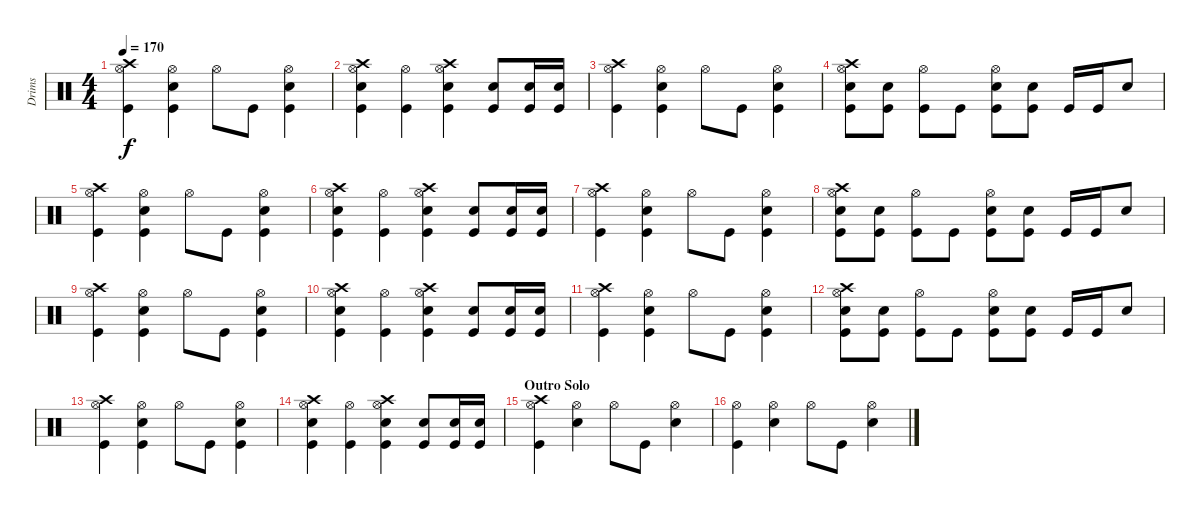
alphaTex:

\track ("Drims" "Drims") {instrument percussion}
\staff {score}
\articulation defaults
\ts (4 4)
\tempo 170
\clef neutral
\ks c
("Hi-Hat (open)" "Crash high (hit)" "Kick (hit)").4{dy f} ("Hi-Hat (open)" "Electric Snare (hit)" "Kick (hit)").4 "Hi-Hat (open)".8 "Kick (hit)".8 ("Hi-Hat (open)" "Electric Snare (hit)" "Kick (hit)").4 |
("Hi-Hat (open)" "Crash high (hit)" "Electric Snare (hit)" "Kick (hit)").4 ("Hi-Hat (open)" "Kick (hit)").4 ("Hi-Hat (open)" "Crash high (hit)" "Electric Snare (hit)" "Kick (hit)").4 ("Electric Snare (hit)" "Kick (hit)").8 ("Electric Snare (hit)" "Kick (hit)").16 ("Electric Snare (hit)" "Kick (hit)").16 |
("Hi-Hat (open)" "Crash high (hit)" "Kick (hit)").4 ("Hi-Hat (open)" "Electric Snare (hit)" "Kick (hit)").4 "Hi-Hat (open)".8 "Kick (hit)".8 ("Hi-Hat (open)" "Electric Snare (hit)" "Kick (hit)").4 |
("Hi-Hat (open)" "Crash high (hit)" "Electric Snare (hit)" "Kick (hit)").8 ("Electric Snare (hit)" "Kick (hit)").8 ("Hi-Hat (open)" "Kick (hit)").8 "Kick (hit)".8 ("Hi-Hat (open)" "Electric Snare (hit)" "Kick (hit)").8 ("Electric Snare (hit)" "Kick (hit)").8 "Kick (hit)".16 "Kick (hit)".16 "Electric Snare (hit)".8 |
("Hi-Hat (open)" "Crash high (hit)" "Kick (hit)").4 ("Hi-Hat (open)" "Electric Snare (hit)" "Kick (hit)").4 "Hi-Hat (open)".8 "Kick (hit)".8 ("Hi-Hat (open)" "Electric Snare (hit)" "Kick (hit)").4 |
("Hi-Hat (open)" "Crash high (hit)" "Electric Snare (hit)" "Kick (hit)").4 ("Hi-Hat (open)" "Kick (hit)").4 ("Hi-Hat (open)" "Crash high (hit)" "Electric Snare (hit)" "Kick (hit)").4 ("Electric Snare (hit)" "Kick (hit)").8 ("Electric Snare (hit)" "Kick (hit)").16 ("Electric Snare (hit)" "Kick (hit)").16 |
("Hi-Hat (open)" "Crash high (hit)" "Kick (hit)").4 ("Hi-Hat (open)" "Electric Snare (hit)" "Kick (hit)").4 "Hi-Hat (open)".8 "Kick (hit)".8 ("Hi-Hat (open)" "Electric Snare (hit)" "Kick (hit)").4 |
("Hi-Hat (open)" "Crash high (hit)" "Electric Snare (hit)" "Kick (hit)").8 ("Electric Snare (hit)" "Kick (hit)").8 ("Hi-Hat (open)" "Kick (hit)").8 "Kick (hit)".8 ("Hi-Hat (open)" "Electric Snare (hit)" "Kick (hit)").8 ("Electric Snare (hit)" "Kick (hit)").8 "Kick (hit)".16 "Kick (hit)".16 "Electric Snare (hit)".8 |
("Hi-Hat (open)" "Crash high (hit)" "Kick (hit)").4 ("Hi-Hat (open)" "Electric Snare (hit)" "Kick (hit)").4 "Hi-Hat (open)".8 "Kick (hit)".8 ("Hi-Hat (open)" "Electric Snare (hit)" "Kick (hit)").4 |
("Hi-Hat (open)" "Crash high (hit)" "Electric Snare (hit)" "Kick (hit)").4 ("Hi-Hat (open)" "Kick (hit)").4 ("Hi-Hat (open)" "Crash high (hit)" "Electric Snare (hit)" "Kick (hit)").4 ("Electric Snare (hit)" "Kick (hit)").8 ("Electric Snare (hit)" "Kick (hit)").16 ("Electric Snare (hit)" "Kick (hit)").16 |
("Hi-Hat (open)" "Crash high (hit)" "Kick (hit)").4 ("Hi-Hat (open)" "Electric Snare (hit)" "Kick (hit)").4 "Hi-Hat (open)".8 "Kick (hit)".8 ("Hi-Hat (open)" "Electric Snare (hit)" "Kick (hit)").4 |
("Hi-Hat (open)" "Crash high (hit)" "Electric Snare (hit)" "Kick (hit)").8 ("Electric Snare (hit)" "Kick (hit)").8 ("Hi-Hat (open)" "Kick (hit)").8 "Kick (hit)".8 ("Hi-Hat (open)" "Electric Snare (hit)" "Kick (hit)").8 ("Electric Snare (hit)" "Kick (hit)").8 "Kick (hit)".16 "Kick (hit)".16 "Electric Snare (hit)".8 |
("Hi-Hat (open)" "Crash high (hit)" "Kick (hit)").4 ("Hi-Hat (open)" "Electric Snare (hit)" "Kick (hit)").4 "Hi-Hat (open)".8 "Kick (hit)".8 ("Hi-Hat (open)" "Electric Snare (hit)" "Kick (hit)").4 |
("Hi-Hat (open)" "Crash high (hit)" "Electric Snare (hit)" "Kick (hit)").4 ("Hi-Hat (open)" "Kick (hit)").4 ("Hi-Hat (open)" "Crash high (hit)" "Electric Snare (hit)" "Kick (hit)").4 ("Electric Snare (hit)" "Kick (hit)").8 ("Electric Snare (hit)" "Kick (hit)").16 ("Electric Snare (hit)" "Kick (hit)").16 |
\section ("" "Outro Solo")
("Hi-Hat (open)" "Crash high (hit)" "Kick (hit)").4 ("Hi-Hat (open)" "Electric Snare (hit)").4 "Hi-Hat (open)".8 "Kick (hit)".8 ("Hi-Hat (open)" "Electric Snare (hit)").4 |
("Hi-Hat (open)" "Kick (hit)").4 ("Hi-Hat (open)" "Electric Snare (hit)").4 "Hi-Hat (open)".8 "Kick (hit)".8 ("Hi-Hat (open)" "Electric Snare (hit)").4
